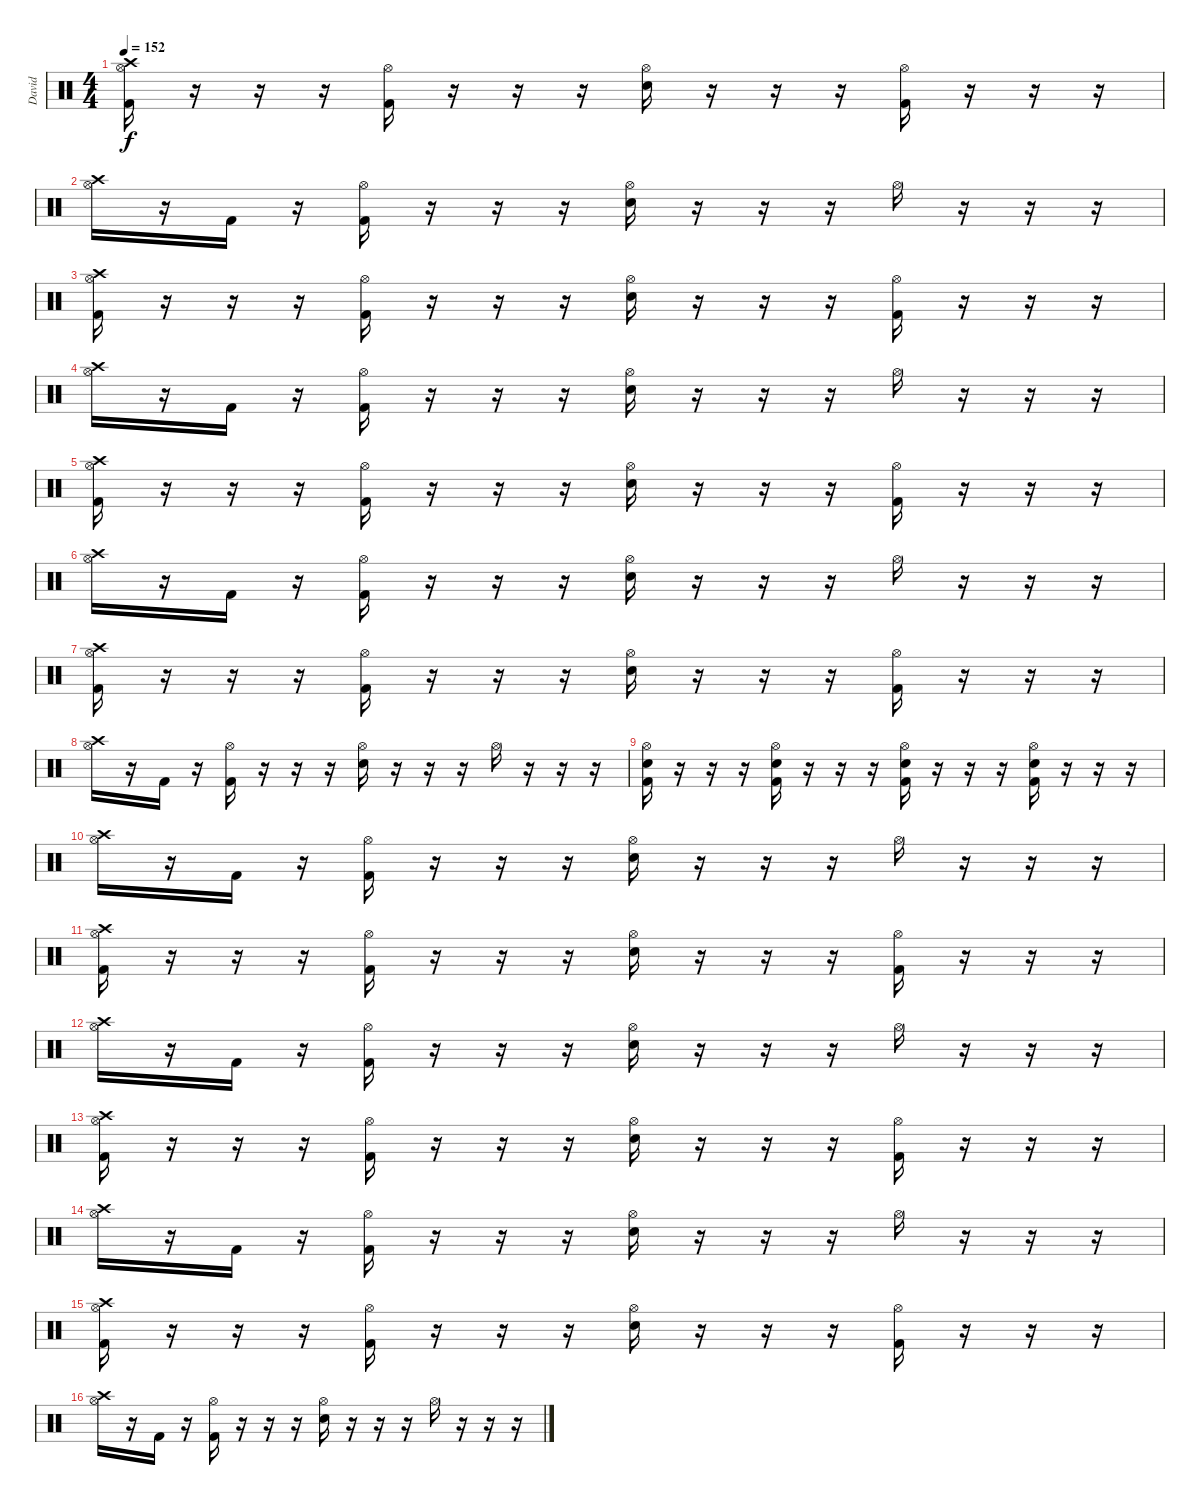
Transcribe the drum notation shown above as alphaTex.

\track ("David" "David") {instrument percussion}
\staff {score}
\articulation defaults
\ts (4 4)
\tempo 152
\clef neutral
\ks c
("Crash high (hit)" "Hi-Hat (open)" "Kick (hit) 2").16{dy f} r.16 r.16 r.16 ("Hi-Hat (open)" "Kick (hit) 2").16 r.16 r.16 r.16 ("Hi-Hat (open)" "Electric Snare (hit)").16 r.16 r.16 r.16 ("Hi-Hat (open)" "Kick (hit) 2").16 r.16 r.16 r.16 |
("Crash high (hit)" "Hi-Hat (open)").16 r.16 "Kick (hit) 2".16 r.16 ("Hi-Hat (open)" "Kick (hit) 2").16 r.16 r.16 r.16 ("Hi-Hat (open)" "Electric Snare (hit)").16 r.16 r.16 r.16 "Hi-Hat (open)".16 r.16 r.16 r.16 |
("Crash high (hit)" "Hi-Hat (open)" "Kick (hit) 2").16 r.16 r.16 r.16 ("Hi-Hat (open)" "Kick (hit) 2").16 r.16 r.16 r.16 ("Hi-Hat (open)" "Electric Snare (hit)").16 r.16 r.16 r.16 ("Hi-Hat (open)" "Kick (hit) 2").16 r.16 r.16 r.16 |
("Crash high (hit)" "Hi-Hat (open)").16 r.16 "Kick (hit) 2".16 r.16 ("Hi-Hat (open)" "Kick (hit) 2").16 r.16 r.16 r.16 ("Hi-Hat (open)" "Electric Snare (hit)").16 r.16 r.16 r.16 "Hi-Hat (open)".16 r.16 r.16 r.16 |
("Crash high (hit)" "Hi-Hat (open)" "Kick (hit) 2").16 r.16 r.16 r.16 ("Hi-Hat (open)" "Kick (hit) 2").16 r.16 r.16 r.16 ("Hi-Hat (open)" "Electric Snare (hit)").16 r.16 r.16 r.16 ("Hi-Hat (open)" "Kick (hit) 2").16 r.16 r.16 r.16 |
("Crash high (hit)" "Hi-Hat (open)").16 r.16 "Kick (hit) 2".16 r.16 ("Hi-Hat (open)" "Kick (hit) 2").16 r.16 r.16 r.16 ("Hi-Hat (open)" "Electric Snare (hit)").16 r.16 r.16 r.16 "Hi-Hat (open)".16 r.16 r.16 r.16 |
("Crash high (hit)" "Hi-Hat (open)" "Kick (hit) 2").16 r.16 r.16 r.16 ("Hi-Hat (open)" "Kick (hit) 2").16 r.16 r.16 r.16 ("Hi-Hat (open)" "Electric Snare (hit)").16 r.16 r.16 r.16 ("Hi-Hat (open)" "Kick (hit) 2").16 r.16 r.16 r.16 |
("Crash high (hit)" "Hi-Hat (open)").16 r.16 "Kick (hit) 2".16 r.16 ("Hi-Hat (open)" "Kick (hit) 2").16 r.16 r.16 r.16 ("Hi-Hat (open)" "Electric Snare (hit)").16 r.16 r.16 r.16 "Hi-Hat (open)".16 r.16 r.16 r.16 |
("Hi-Hat (open)" "Electric Snare (hit)" "Kick (hit) 2").16 r.16 r.16 r.16 ("Hi-Hat (open)" "Electric Snare (hit)" "Kick (hit) 2").16 r.16 r.16 r.16 ("Hi-Hat (open)" "Electric Snare (hit)" "Kick (hit) 2").16 r.16 r.16 r.16 ("Hi-Hat (open)" "Electric Snare (hit)" "Kick (hit) 2").16 r.16 r.16 r.16 |
("Crash high (hit)" "Hi-Hat (open)").16 r.16 "Kick (hit) 2".16 r.16 ("Hi-Hat (open)" "Kick (hit) 2").16 r.16 r.16 r.16 ("Hi-Hat (open)" "Electric Snare (hit)").16 r.16 r.16 r.16 "Hi-Hat (open)".16 r.16 r.16 r.16 |
("Crash high (hit)" "Hi-Hat (open)" "Kick (hit) 2").16 r.16 r.16 r.16 ("Hi-Hat (open)" "Kick (hit) 2").16 r.16 r.16 r.16 ("Hi-Hat (open)" "Electric Snare (hit)").16 r.16 r.16 r.16 ("Hi-Hat (open)" "Kick (hit) 2").16 r.16 r.16 r.16 |
("Crash high (hit)" "Hi-Hat (open)").16 r.16 "Kick (hit) 2".16 r.16 ("Hi-Hat (open)" "Kick (hit) 2").16 r.16 r.16 r.16 ("Hi-Hat (open)" "Electric Snare (hit)").16 r.16 r.16 r.16 "Hi-Hat (open)".16 r.16 r.16 r.16 |
("Crash high (hit)" "Hi-Hat (open)" "Kick (hit) 2").16 r.16 r.16 r.16 ("Hi-Hat (open)" "Kick (hit) 2").16 r.16 r.16 r.16 ("Hi-Hat (open)" "Electric Snare (hit)").16 r.16 r.16 r.16 ("Hi-Hat (open)" "Kick (hit) 2").16 r.16 r.16 r.16 |
("Crash high (hit)" "Hi-Hat (open)").16 r.16 "Kick (hit) 2".16 r.16 ("Hi-Hat (open)" "Kick (hit) 2").16 r.16 r.16 r.16 ("Hi-Hat (open)" "Electric Snare (hit)").16 r.16 r.16 r.16 "Hi-Hat (open)".16 r.16 r.16 r.16 |
("Crash high (hit)" "Hi-Hat (open)" "Kick (hit) 2").16 r.16 r.16 r.16 ("Hi-Hat (open)" "Kick (hit) 2").16 r.16 r.16 r.16 ("Hi-Hat (open)" "Electric Snare (hit)").16 r.16 r.16 r.16 ("Hi-Hat (open)" "Kick (hit) 2").16 r.16 r.16 r.16 |
("Crash high (hit)" "Hi-Hat (open)").16 r.16 "Kick (hit) 2".16 r.16 ("Hi-Hat (open)" "Kick (hit) 2").16 r.16 r.16 r.16 ("Hi-Hat (open)" "Electric Snare (hit)").16 r.16 r.16 r.16 "Hi-Hat (open)".16 r.16 r.16 r.16
